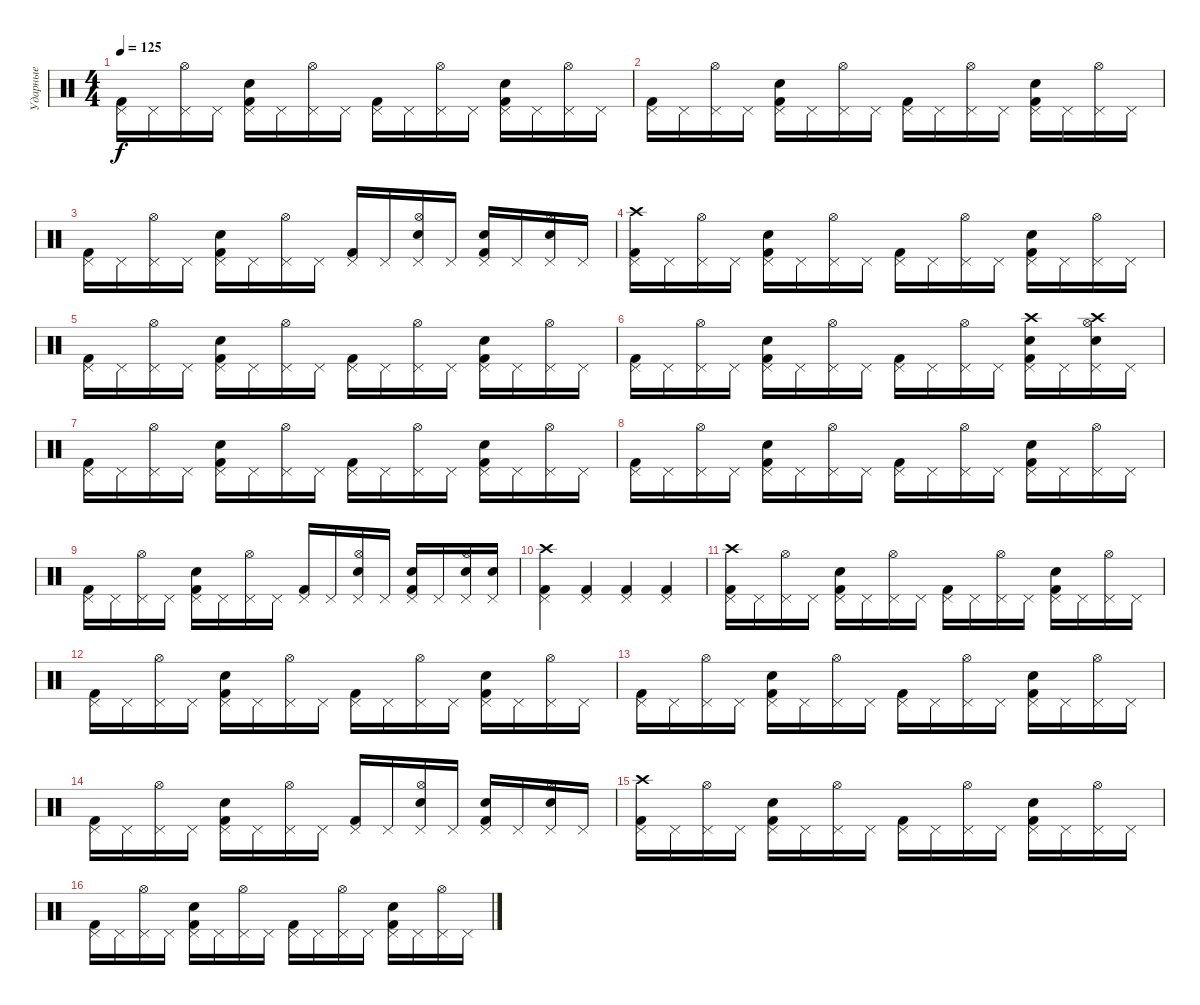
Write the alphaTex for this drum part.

\track ("Ударные" "Ударные") {instrument percussion}
\staff {score}
\articulation defaults
\ts (4 4)
\tempo 125
\clef neutral
\ks c
("Kick (hit) 2" "Pedal Hi-Hat (hit)").16{dy f} "Pedal Hi-Hat (hit)".16 ("Pedal Hi-Hat (hit)" "Hi-Hat (open)").16 "Pedal Hi-Hat (hit)".16 ("Kick (hit) 2" "Pedal Hi-Hat (hit)" "Snare (hit) 2").16 "Pedal Hi-Hat (hit)".16 ("Pedal Hi-Hat (hit)" "Hi-Hat (open)").16 "Pedal Hi-Hat (hit)".16 ("Kick (hit) 2" "Pedal Hi-Hat (hit)").16 "Pedal Hi-Hat (hit)".16 ("Pedal Hi-Hat (hit)" "Hi-Hat (open)").16 "Pedal Hi-Hat (hit)".16 ("Kick (hit) 2" "Pedal Hi-Hat (hit)" "Snare (hit) 2").16 "Pedal Hi-Hat (hit)".16 ("Pedal Hi-Hat (hit)" "Hi-Hat (open)").16 "Pedal Hi-Hat (hit)".16 |
("Kick (hit) 2" "Pedal Hi-Hat (hit)").16 "Pedal Hi-Hat (hit)".16 ("Pedal Hi-Hat (hit)" "Hi-Hat (open)").16 "Pedal Hi-Hat (hit)".16 ("Kick (hit) 2" "Pedal Hi-Hat (hit)" "Snare (hit) 2").16 "Pedal Hi-Hat (hit)".16 ("Pedal Hi-Hat (hit)" "Hi-Hat (open)").16 "Pedal Hi-Hat (hit)".16 ("Kick (hit) 2" "Pedal Hi-Hat (hit)").16 "Pedal Hi-Hat (hit)".16 ("Pedal Hi-Hat (hit)" "Hi-Hat (open)").16 "Pedal Hi-Hat (hit)".16 ("Kick (hit) 2" "Pedal Hi-Hat (hit)" "Snare (hit) 2").16 "Pedal Hi-Hat (hit)".16 ("Pedal Hi-Hat (hit)" "Hi-Hat (open)").16 "Pedal Hi-Hat (hit)".16 |
("Kick (hit) 2" "Pedal Hi-Hat (hit)").16 "Pedal Hi-Hat (hit)".16 ("Pedal Hi-Hat (hit)" "Hi-Hat (open)").16 "Pedal Hi-Hat (hit)".16 ("Kick (hit) 2" "Pedal Hi-Hat (hit)" "Snare (hit) 2").16 "Pedal Hi-Hat (hit)".16 ("Pedal Hi-Hat (hit)" "Hi-Hat (open)").16 "Pedal Hi-Hat (hit)".16 ("Kick (hit) 2" "Pedal Hi-Hat (hit)").16 "Pedal Hi-Hat (hit)".16 ("Pedal Hi-Hat (hit)" "Snare (hit) 2" "Hi-Hat (open)").16 "Pedal Hi-Hat (hit)".16 ("Kick (hit) 2" "Pedal Hi-Hat (hit)" "Snare (hit) 2").16 "Pedal Hi-Hat (hit)".16 ("Pedal Hi-Hat (hit)" "Snare (hit) 2" "Hi-Hat (open)").16 "Pedal Hi-Hat (hit)".16 |
("Kick (hit) 2" "Pedal Hi-Hat (hit)" "Crash high (hit)").16 "Pedal Hi-Hat (hit)".16 ("Pedal Hi-Hat (hit)" "Hi-Hat (open)").16 "Pedal Hi-Hat (hit)".16 ("Kick (hit) 2" "Pedal Hi-Hat (hit)" "Snare (hit) 2").16 "Pedal Hi-Hat (hit)".16 ("Pedal Hi-Hat (hit)" "Hi-Hat (open)").16 "Pedal Hi-Hat (hit)".16 ("Kick (hit) 2" "Pedal Hi-Hat (hit)").16 "Pedal Hi-Hat (hit)".16 ("Pedal Hi-Hat (hit)" "Hi-Hat (open)").16 "Pedal Hi-Hat (hit)".16 ("Kick (hit) 2" "Pedal Hi-Hat (hit)" "Snare (hit) 2").16 "Pedal Hi-Hat (hit)".16 ("Pedal Hi-Hat (hit)" "Hi-Hat (open)").16 "Pedal Hi-Hat (hit)".16 |
("Kick (hit) 2" "Pedal Hi-Hat (hit)").16 "Pedal Hi-Hat (hit)".16 ("Pedal Hi-Hat (hit)" "Hi-Hat (open)").16 "Pedal Hi-Hat (hit)".16 ("Kick (hit) 2" "Pedal Hi-Hat (hit)" "Snare (hit) 2").16 "Pedal Hi-Hat (hit)".16 ("Pedal Hi-Hat (hit)" "Hi-Hat (open)").16 "Pedal Hi-Hat (hit)".16 ("Kick (hit) 2" "Pedal Hi-Hat (hit)").16 "Pedal Hi-Hat (hit)".16 ("Pedal Hi-Hat (hit)" "Hi-Hat (open)").16 "Pedal Hi-Hat (hit)".16 ("Kick (hit) 2" "Pedal Hi-Hat (hit)" "Snare (hit) 2").16 "Pedal Hi-Hat (hit)".16 ("Pedal Hi-Hat (hit)" "Hi-Hat (open)").16 "Pedal Hi-Hat (hit)".16 |
("Kick (hit) 2" "Pedal Hi-Hat (hit)").16 "Pedal Hi-Hat (hit)".16 ("Pedal Hi-Hat (hit)" "Hi-Hat (open)").16 "Pedal Hi-Hat (hit)".16 ("Kick (hit) 2" "Pedal Hi-Hat (hit)" "Snare (hit) 2").16 "Pedal Hi-Hat (hit)".16 ("Pedal Hi-Hat (hit)" "Hi-Hat (open)").16 "Pedal Hi-Hat (hit)".16 ("Kick (hit) 2" "Pedal Hi-Hat (hit)").16 "Pedal Hi-Hat (hit)".16 ("Pedal Hi-Hat (hit)" "Hi-Hat (open)").16 "Pedal Hi-Hat (hit)".16 ("Kick (hit) 2" "Pedal Hi-Hat (hit)" "Snare (hit) 2" "Crash high (hit)").16 "Pedal Hi-Hat (hit)".16 ("Pedal Hi-Hat (hit)" "Snare (hit) 2" "Hi-Hat (open)" "Crash high (hit)").16 "Pedal Hi-Hat (hit)".16 |
("Kick (hit) 2" "Pedal Hi-Hat (hit)").16 "Pedal Hi-Hat (hit)".16 ("Pedal Hi-Hat (hit)" "Hi-Hat (open)").16 "Pedal Hi-Hat (hit)".16 ("Kick (hit) 2" "Pedal Hi-Hat (hit)" "Snare (hit) 2").16 "Pedal Hi-Hat (hit)".16 ("Pedal Hi-Hat (hit)" "Hi-Hat (open)").16 "Pedal Hi-Hat (hit)".16 ("Kick (hit) 2" "Pedal Hi-Hat (hit)").16 "Pedal Hi-Hat (hit)".16 ("Pedal Hi-Hat (hit)" "Hi-Hat (open)").16 "Pedal Hi-Hat (hit)".16 ("Kick (hit) 2" "Pedal Hi-Hat (hit)" "Snare (hit) 2").16 "Pedal Hi-Hat (hit)".16 ("Pedal Hi-Hat (hit)" "Hi-Hat (open)").16 "Pedal Hi-Hat (hit)".16 |
("Kick (hit) 2" "Pedal Hi-Hat (hit)").16 "Pedal Hi-Hat (hit)".16 ("Pedal Hi-Hat (hit)" "Hi-Hat (open)").16 "Pedal Hi-Hat (hit)".16 ("Kick (hit) 2" "Pedal Hi-Hat (hit)" "Snare (hit) 2").16 "Pedal Hi-Hat (hit)".16 ("Pedal Hi-Hat (hit)" "Hi-Hat (open)").16 "Pedal Hi-Hat (hit)".16 ("Kick (hit) 2" "Pedal Hi-Hat (hit)").16 "Pedal Hi-Hat (hit)".16 ("Pedal Hi-Hat (hit)" "Hi-Hat (open)").16 "Pedal Hi-Hat (hit)".16 ("Kick (hit) 2" "Pedal Hi-Hat (hit)" "Snare (hit) 2").16 "Pedal Hi-Hat (hit)".16 ("Pedal Hi-Hat (hit)" "Hi-Hat (open)").16 "Pedal Hi-Hat (hit)".16 |
("Kick (hit) 2" "Pedal Hi-Hat (hit)").16 "Pedal Hi-Hat (hit)".16 ("Pedal Hi-Hat (hit)" "Hi-Hat (open)").16 "Pedal Hi-Hat (hit)".16 ("Kick (hit) 2" "Pedal Hi-Hat (hit)" "Snare (hit) 2").16 "Pedal Hi-Hat (hit)".16 ("Pedal Hi-Hat (hit)" "Hi-Hat (open)").16 "Pedal Hi-Hat (hit)".16 ("Kick (hit) 2" "Pedal Hi-Hat (hit)").16 "Pedal Hi-Hat (hit)".16 ("Pedal Hi-Hat (hit)" "Snare (hit) 2" "Hi-Hat (open)").16 "Pedal Hi-Hat (hit)".16 ("Kick (hit) 2" "Pedal Hi-Hat (hit)" "Snare (hit) 2").16 "Pedal Hi-Hat (hit)".16 ("Pedal Hi-Hat (hit)" "Snare (hit) 2" "Hi-Hat (open)").16 ("Pedal Hi-Hat (hit)" "Snare (hit) 2").16 |
("Kick (hit) 2" "Pedal Hi-Hat (hit)" "Crash high (hit)").4 ("Kick (hit) 2" "Pedal Hi-Hat (hit)").4 ("Kick (hit) 2" "Pedal Hi-Hat (hit)").4 ("Kick (hit) 2" "Pedal Hi-Hat (hit)").4 |
("Kick (hit) 2" "Pedal Hi-Hat (hit)" "Crash high (hit)").16 "Pedal Hi-Hat (hit)".16 ("Pedal Hi-Hat (hit)" "Hi-Hat (open)").16 "Pedal Hi-Hat (hit)".16 ("Kick (hit) 2" "Pedal Hi-Hat (hit)" "Snare (hit) 2").16 "Pedal Hi-Hat (hit)".16 ("Pedal Hi-Hat (hit)" "Hi-Hat (open)").16 "Pedal Hi-Hat (hit)".16 ("Kick (hit) 2" "Pedal Hi-Hat (hit)").16 "Pedal Hi-Hat (hit)".16 ("Pedal Hi-Hat (hit)" "Hi-Hat (open)").16 "Pedal Hi-Hat (hit)".16 ("Kick (hit) 2" "Pedal Hi-Hat (hit)" "Snare (hit) 2").16 "Pedal Hi-Hat (hit)".16 ("Pedal Hi-Hat (hit)" "Hi-Hat (open)").16 "Pedal Hi-Hat (hit)".16 |
("Kick (hit) 2" "Pedal Hi-Hat (hit)").16 "Pedal Hi-Hat (hit)".16 ("Pedal Hi-Hat (hit)" "Hi-Hat (open)").16 "Pedal Hi-Hat (hit)".16 ("Kick (hit) 2" "Pedal Hi-Hat (hit)" "Snare (hit) 2").16 "Pedal Hi-Hat (hit)".16 ("Pedal Hi-Hat (hit)" "Hi-Hat (open)").16 "Pedal Hi-Hat (hit)".16 ("Kick (hit) 2" "Pedal Hi-Hat (hit)").16 "Pedal Hi-Hat (hit)".16 ("Pedal Hi-Hat (hit)" "Hi-Hat (open)").16 "Pedal Hi-Hat (hit)".16 ("Kick (hit) 2" "Pedal Hi-Hat (hit)" "Snare (hit) 2").16 "Pedal Hi-Hat (hit)".16 ("Pedal Hi-Hat (hit)" "Hi-Hat (open)").16 "Pedal Hi-Hat (hit)".16 |
("Kick (hit) 2" "Pedal Hi-Hat (hit)").16 "Pedal Hi-Hat (hit)".16 ("Pedal Hi-Hat (hit)" "Hi-Hat (open)").16 "Pedal Hi-Hat (hit)".16 ("Kick (hit) 2" "Pedal Hi-Hat (hit)" "Snare (hit) 2").16 "Pedal Hi-Hat (hit)".16 ("Pedal Hi-Hat (hit)" "Hi-Hat (open)").16 "Pedal Hi-Hat (hit)".16 ("Kick (hit) 2" "Pedal Hi-Hat (hit)").16 "Pedal Hi-Hat (hit)".16 ("Pedal Hi-Hat (hit)" "Hi-Hat (open)").16 "Pedal Hi-Hat (hit)".16 ("Kick (hit) 2" "Pedal Hi-Hat (hit)" "Snare (hit) 2").16 "Pedal Hi-Hat (hit)".16 ("Pedal Hi-Hat (hit)" "Hi-Hat (open)").16 "Pedal Hi-Hat (hit)".16 |
("Kick (hit) 2" "Pedal Hi-Hat (hit)").16 "Pedal Hi-Hat (hit)".16 ("Pedal Hi-Hat (hit)" "Hi-Hat (open)").16 "Pedal Hi-Hat (hit)".16 ("Kick (hit) 2" "Pedal Hi-Hat (hit)" "Snare (hit) 2").16 "Pedal Hi-Hat (hit)".16 ("Pedal Hi-Hat (hit)" "Hi-Hat (open)").16 "Pedal Hi-Hat (hit)".16 ("Kick (hit) 2" "Pedal Hi-Hat (hit)").16 "Pedal Hi-Hat (hit)".16 ("Pedal Hi-Hat (hit)" "Snare (hit) 2" "Hi-Hat (open)").16 "Pedal Hi-Hat (hit)".16 ("Kick (hit) 2" "Pedal Hi-Hat (hit)" "Snare (hit) 2").16 "Pedal Hi-Hat (hit)".16 ("Pedal Hi-Hat (hit)" "Snare (hit) 2" "Hi-Hat (open)").16 "Pedal Hi-Hat (hit)".16 |
("Kick (hit) 2" "Pedal Hi-Hat (hit)" "Crash high (hit)").16 "Pedal Hi-Hat (hit)".16 ("Pedal Hi-Hat (hit)" "Hi-Hat (open)").16 "Pedal Hi-Hat (hit)".16 ("Kick (hit) 2" "Pedal Hi-Hat (hit)" "Snare (hit) 2").16 "Pedal Hi-Hat (hit)".16 ("Pedal Hi-Hat (hit)" "Hi-Hat (open)").16 "Pedal Hi-Hat (hit)".16 ("Kick (hit) 2" "Pedal Hi-Hat (hit)").16 "Pedal Hi-Hat (hit)".16 ("Pedal Hi-Hat (hit)" "Hi-Hat (open)").16 "Pedal Hi-Hat (hit)".16 ("Kick (hit) 2" "Pedal Hi-Hat (hit)" "Snare (hit) 2").16 "Pedal Hi-Hat (hit)".16 ("Pedal Hi-Hat (hit)" "Hi-Hat (open)").16 "Pedal Hi-Hat (hit)".16 |
("Kick (hit) 2" "Pedal Hi-Hat (hit)").16 "Pedal Hi-Hat (hit)".16 ("Pedal Hi-Hat (hit)" "Hi-Hat (open)").16 "Pedal Hi-Hat (hit)".16 ("Kick (hit) 2" "Pedal Hi-Hat (hit)" "Snare (hit) 2").16 "Pedal Hi-Hat (hit)".16 ("Pedal Hi-Hat (hit)" "Hi-Hat (open)").16 "Pedal Hi-Hat (hit)".16 ("Kick (hit) 2" "Pedal Hi-Hat (hit)").16 "Pedal Hi-Hat (hit)".16 ("Pedal Hi-Hat (hit)" "Hi-Hat (open)").16 "Pedal Hi-Hat (hit)".16 ("Kick (hit) 2" "Pedal Hi-Hat (hit)" "Snare (hit) 2").16 "Pedal Hi-Hat (hit)".16 ("Pedal Hi-Hat (hit)" "Hi-Hat (open)").16 "Pedal Hi-Hat (hit)".16
